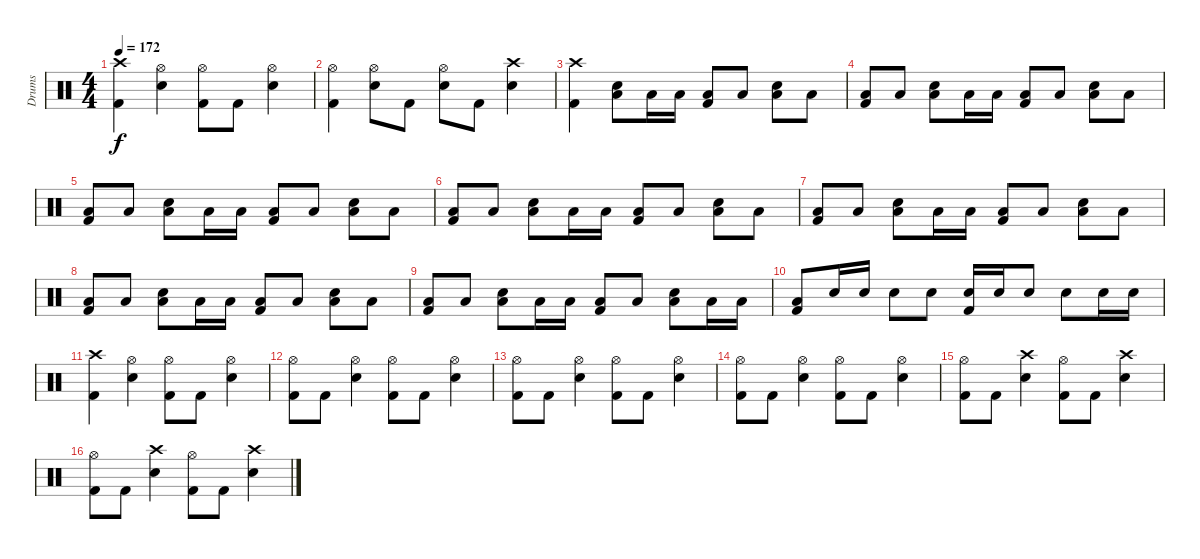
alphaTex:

\track ("Drums" "Drums") {instrument percussion}
\staff {score}
\articulation defaults
\ts (4 4)
\tempo 172
\clef neutral
\ks c
("Crash high (hit)" "Kick (hit) 2").4{dy f} ("Hi-Hat (open)" "Electric Snare (hit)").4 ("Hi-Hat (open)" "Kick (hit) 2").8 "Kick (hit) 2".8 ("Hi-Hat (open)" "Electric Snare (hit)").4 |
("Hi-Hat (open)" "Kick (hit) 2").4 ("Hi-Hat (open)" "Electric Snare (hit)").8 "Kick (hit) 2".8 ("Hi-Hat (open)" "Electric Snare (hit)").8 "Kick (hit) 2".8 ("Crash high (hit)" "Electric Snare (hit)").4 |
("Crash high (hit)" "Kick (hit) 2").4 ("Electric Snare (hit)" "Low Floor Tom (hit)").8 "Low Floor Tom (hit)".16 "Low Floor Tom (hit)".16 ("Low Floor Tom (hit)" "Kick (hit) 2").8 "Low Floor Tom (hit)".8 ("Electric Snare (hit)" "Low Floor Tom (hit)").8 "Low Floor Tom (hit)".8 |
("Low Floor Tom (hit)" "Kick (hit) 2").8 "Low Floor Tom (hit)".8 ("Electric Snare (hit)" "Low Floor Tom (hit)").8 "Low Floor Tom (hit)".16 "Low Floor Tom (hit)".16 ("Low Floor Tom (hit)" "Kick (hit) 2").8 "Low Floor Tom (hit)".8 ("Electric Snare (hit)" "Low Floor Tom (hit)").8 "Low Floor Tom (hit)".8 |
("Low Floor Tom (hit)" "Kick (hit) 2").8 "Low Floor Tom (hit)".8 ("Electric Snare (hit)" "Low Floor Tom (hit)").8 "Low Floor Tom (hit)".16 "Low Floor Tom (hit)".16 ("Low Floor Tom (hit)" "Kick (hit) 2").8 "Low Floor Tom (hit)".8 ("Electric Snare (hit)" "Low Floor Tom (hit)").8 "Low Floor Tom (hit)".8 |
("Low Floor Tom (hit)" "Kick (hit) 2").8 "Low Floor Tom (hit)".8 ("Electric Snare (hit)" "Low Floor Tom (hit)").8 "Low Floor Tom (hit)".16 "Low Floor Tom (hit)".16 ("Low Floor Tom (hit)" "Kick (hit) 2").8 "Low Floor Tom (hit)".8 ("Electric Snare (hit)" "Low Floor Tom (hit)").8 "Low Floor Tom (hit)".8 |
("Low Floor Tom (hit)" "Kick (hit) 2").8 "Low Floor Tom (hit)".8 ("Electric Snare (hit)" "Low Floor Tom (hit)").8 "Low Floor Tom (hit)".16 "Low Floor Tom (hit)".16 ("Low Floor Tom (hit)" "Kick (hit) 2").8 "Low Floor Tom (hit)".8 ("Electric Snare (hit)" "Low Floor Tom (hit)").8 "Low Floor Tom (hit)".8 |
("Low Floor Tom (hit)" "Kick (hit) 2").8 "Low Floor Tom (hit)".8 ("Electric Snare (hit)" "Low Floor Tom (hit)").8 "Low Floor Tom (hit)".16 "Low Floor Tom (hit)".16 ("Low Floor Tom (hit)" "Kick (hit) 2").8 "Low Floor Tom (hit)".8 ("Electric Snare (hit)" "Low Floor Tom (hit)").8 "Low Floor Tom (hit)".8 |
("Low Floor Tom (hit)" "Kick (hit) 2").8 "Low Floor Tom (hit)".8 ("Electric Snare (hit)" "Low Floor Tom (hit)").8 "Low Floor Tom (hit)".16 "Low Floor Tom (hit)".16 ("Low Floor Tom (hit)" "Kick (hit) 2").8 "Low Floor Tom (hit)".8 ("Electric Snare (hit)" "Low Floor Tom (hit)").8 "Low Floor Tom (hit)".16 "Low Floor Tom (hit)".16 |
("Low Floor Tom (hit)" "Kick (hit) 2").8 "Electric Snare (hit)".16 "Electric Snare (hit)".16 "Electric Snare (hit)".8 "Electric Snare (hit)".8 ("Electric Snare (hit)" "Kick (hit) 2").16 "Electric Snare (hit)".16 "Electric Snare (hit)".8 "Electric Snare (hit)".8 "Electric Snare (hit)".16 "Electric Snare (hit)".16 |
("Crash high (hit)" "Kick (hit) 2").4 ("Hi-Hat (open)" "Electric Snare (hit)").4 ("Hi-Hat (open)" "Kick (hit) 2").8 "Kick (hit) 2".8 ("Hi-Hat (open)" "Electric Snare (hit)").4 |
("Hi-Hat (open)" "Kick (hit) 2").8 "Kick (hit) 2".8 ("Hi-Hat (open)" "Electric Snare (hit)").4 ("Hi-Hat (open)" "Kick (hit) 2").8 "Kick (hit) 2".8 ("Hi-Hat (open)" "Electric Snare (hit)").4 |
("Hi-Hat (open)" "Kick (hit) 2").8 "Kick (hit) 2".8 ("Hi-Hat (open)" "Electric Snare (hit)").4 ("Hi-Hat (open)" "Kick (hit) 2").8 "Kick (hit) 2".8 ("Hi-Hat (open)" "Electric Snare (hit)").4 |
("Hi-Hat (open)" "Kick (hit) 2").8 "Kick (hit) 2".8 ("Hi-Hat (open)" "Electric Snare (hit)").4 ("Hi-Hat (open)" "Kick (hit) 2").8 "Kick (hit) 2".8 ("Hi-Hat (open)" "Electric Snare (hit)").4 |
("Hi-Hat (open)" "Kick (hit) 2").8 "Kick (hit) 2".8 ("Crash high (hit)" "Electric Snare (hit)").4 ("Hi-Hat (open)" "Kick (hit) 2").8 "Kick (hit) 2".8 ("Crash high (hit)" "Electric Snare (hit)").4 |
("Hi-Hat (open)" "Kick (hit) 2").8 "Kick (hit) 2".8 ("Crash high (hit)" "Electric Snare (hit)").4 ("Hi-Hat (open)" "Kick (hit) 2").8 "Kick (hit) 2".8 ("Crash high (hit)" "Electric Snare (hit)").4
